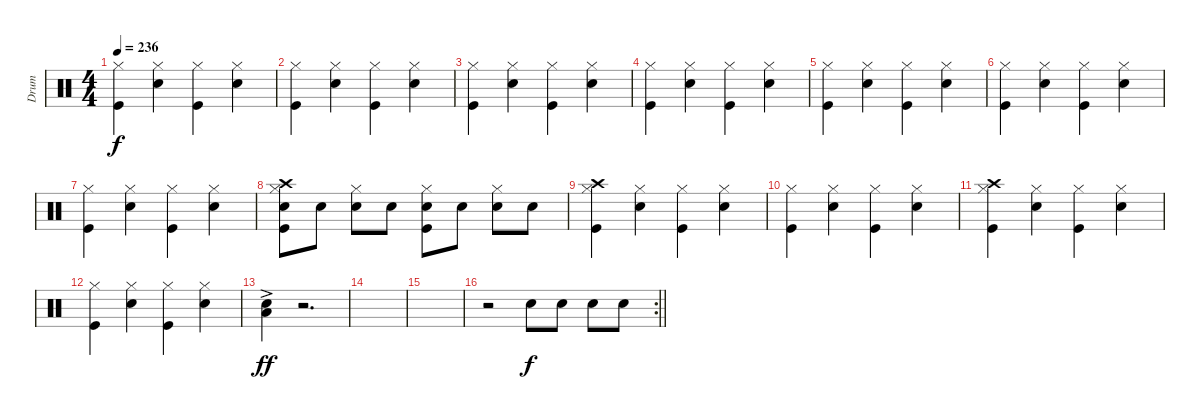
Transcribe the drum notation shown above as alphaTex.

\track ("Drum" "Drum") {instrument percussion}
\staff {score}
\articulation defaults
\ts (4 4)
\tempo 236
\clef neutral
\ks c
("Hi-Hat (closed)" "Kick (hit)").4{dy f} ("Hi-Hat (closed)" "Snare (hit) 2").4 ("Hi-Hat (closed)" "Kick (hit)").4 ("Hi-Hat (closed)" "Snare (hit) 2").4 |
("Hi-Hat (closed)" "Kick (hit)").4 ("Hi-Hat (closed)" "Snare (hit) 2").4 ("Hi-Hat (closed)" "Kick (hit)").4 ("Hi-Hat (closed)" "Snare (hit) 2").4 |
("Hi-Hat (closed)" "Kick (hit)").4 ("Hi-Hat (closed)" "Snare (hit) 2").4 ("Hi-Hat (closed)" "Kick (hit)").4 ("Hi-Hat (closed)" "Snare (hit) 2").4 |
("Hi-Hat (closed)" "Kick (hit)").4 ("Hi-Hat (closed)" "Snare (hit) 2").4 ("Hi-Hat (closed)" "Kick (hit)").4 ("Hi-Hat (closed)" "Snare (hit) 2").4 |
("Hi-Hat (closed)" "Kick (hit)").4 ("Hi-Hat (closed)" "Snare (hit) 2").4 ("Hi-Hat (closed)" "Kick (hit)").4 ("Hi-Hat (closed)" "Snare (hit) 2").4 |
("Hi-Hat (closed)" "Kick (hit)").4 ("Hi-Hat (closed)" "Snare (hit) 2").4 ("Hi-Hat (closed)" "Kick (hit)").4 ("Hi-Hat (closed)" "Snare (hit) 2").4 |
("Hi-Hat (closed)" "Kick (hit)").4 ("Hi-Hat (closed)" "Snare (hit) 2").4 ("Hi-Hat (closed)" "Kick (hit)").4 ("Hi-Hat (closed)" "Snare (hit) 2").4 |
("Crash high (hit)" "Hi-Hat (closed)" "Snare (hit) 2" "Kick (hit)").8 "Snare (hit) 2".8 ("Hi-Hat (closed)" "Snare (hit) 2").8 "Snare (hit) 2".8 ("Hi-Hat (closed)" "Snare (hit) 2" "Kick (hit)").8 "Snare (hit) 2".8 ("Hi-Hat (closed)" "Snare (hit) 2").8 "Snare (hit) 2".8 |
("Crash high (hit)" "Hi-Hat (closed)" "Kick (hit)").4 ("Hi-Hat (closed)" "Snare (hit) 2").4 ("Hi-Hat (closed)" "Kick (hit)").4 ("Hi-Hat (closed)" "Snare (hit) 2").4 |
("Hi-Hat (closed)" "Kick (hit)").4 ("Hi-Hat (closed)" "Snare (hit) 2").4 ("Hi-Hat (closed)" "Kick (hit)").4 ("Hi-Hat (closed)" "Snare (hit) 2").4 |
("Crash high (hit)" "Hi-Hat (closed)" "Kick (hit)").4 ("Hi-Hat (closed)" "Snare (hit) 2").4 ("Hi-Hat (closed)" "Kick (hit)").4 ("Hi-Hat (closed)" "Snare (hit) 2").4 |
("Hi-Hat (closed)" "Kick (hit)").4 ("Hi-Hat (closed)" "Snare (hit) 2").4 ("Hi-Hat (closed)" "Kick (hit)").4 ("Hi-Hat (closed)" "Snare (hit) 2").4 |
("Low Floor Tom (hit)" "Snare (hit) 2"{ac}).4{dy ff} r.2{d} |
|
|
\rc 2
\barLineRight lightlight
r.2 "Snare (hit) 2".8{dy f} "Snare (hit) 2".8 "Snare (hit) 2".8 "Snare (hit) 2".8
